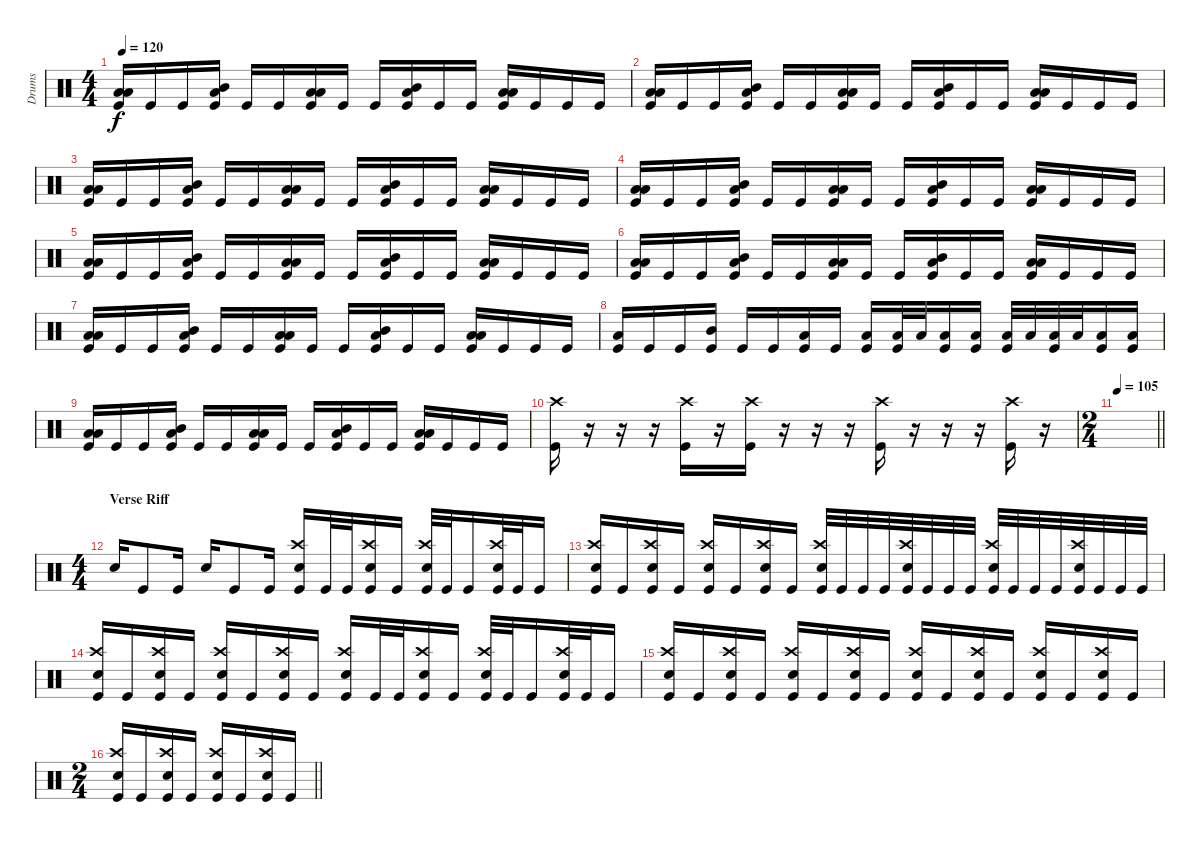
\track ("Drums" "Drums") {instrument percussion}
\staff {score}
\articulation defaults
\ts (4 4)
\tempo 120
\clef neutral
\ks c
("Low Tom (hit)" "Low Floor Tom (hit)" "Kick (hit)").16{dy f} "Kick (hit)".16 "Kick (hit)".16 ("Mid Tom (hit)" "Low Floor Tom (hit)" "Kick (hit)").16 "Kick (hit)".16 "Kick (hit)".16 ("Low Tom (hit)" "Low Floor Tom (hit)" "Kick (hit)").16 "Kick (hit)".16 "Kick (hit)".16 ("Mid Tom (hit)" "Low Floor Tom (hit)" "Kick (hit)").16 "Kick (hit)".16 "Kick (hit)".16 ("Low Tom (hit)" "Low Floor Tom (hit)" "Kick (hit)").16 "Kick (hit)".16 "Kick (hit)".16 "Kick (hit)".16 |
("Low Tom (hit)" "Low Floor Tom (hit)" "Kick (hit)").16 "Kick (hit)".16 "Kick (hit)".16 ("Mid Tom (hit)" "Low Floor Tom (hit)" "Kick (hit)").16 "Kick (hit)".16 "Kick (hit)".16 ("Low Tom (hit)" "Low Floor Tom (hit)" "Kick (hit)").16 "Kick (hit)".16 "Kick (hit)".16 ("Mid Tom (hit)" "Low Floor Tom (hit)" "Kick (hit)").16 "Kick (hit)".16 "Kick (hit)".16 ("Low Tom (hit)" "Low Floor Tom (hit)" "Kick (hit)").16 "Kick (hit)".16 "Kick (hit)".16 "Kick (hit)".16 |
("Low Tom (hit)" "Low Floor Tom (hit)" "Kick (hit)").16 "Kick (hit)".16 "Kick (hit)".16 ("Mid Tom (hit)" "Low Floor Tom (hit)" "Kick (hit)").16 "Kick (hit)".16 "Kick (hit)".16 ("Low Tom (hit)" "Low Floor Tom (hit)" "Kick (hit)").16 "Kick (hit)".16 "Kick (hit)".16 ("Mid Tom (hit)" "Low Floor Tom (hit)" "Kick (hit)").16 "Kick (hit)".16 "Kick (hit)".16 ("Low Tom (hit)" "Low Floor Tom (hit)" "Kick (hit)").16 "Kick (hit)".16 "Kick (hit)".16 "Kick (hit)".16 |
("Low Tom (hit)" "Low Floor Tom (hit)" "Kick (hit)").16 "Kick (hit)".16 "Kick (hit)".16 ("Mid Tom (hit)" "Low Floor Tom (hit)" "Kick (hit)").16 "Kick (hit)".16 "Kick (hit)".16 ("Low Tom (hit)" "Low Floor Tom (hit)" "Kick (hit)").16 "Kick (hit)".16 "Kick (hit)".16 ("Mid Tom (hit)" "Low Floor Tom (hit)" "Kick (hit)").16 "Kick (hit)".16 "Kick (hit)".16 ("Low Tom (hit)" "Low Floor Tom (hit)" "Kick (hit)").16 "Kick (hit)".16 "Kick (hit)".16 "Kick (hit)".16 |
("Low Tom (hit)" "Low Floor Tom (hit)" "Kick (hit)").16 "Kick (hit)".16 "Kick (hit)".16 ("Mid Tom (hit)" "Low Floor Tom (hit)" "Kick (hit)").16 "Kick (hit)".16 "Kick (hit)".16 ("Low Tom (hit)" "Low Floor Tom (hit)" "Kick (hit)").16 "Kick (hit)".16 "Kick (hit)".16 ("Mid Tom (hit)" "Low Floor Tom (hit)" "Kick (hit)").16 "Kick (hit)".16 "Kick (hit)".16 ("Low Tom (hit)" "Low Floor Tom (hit)" "Kick (hit)").16 "Kick (hit)".16 "Kick (hit)".16 "Kick (hit)".16 |
("Low Tom (hit)" "Low Floor Tom (hit)" "Kick (hit)").16 "Kick (hit)".16 "Kick (hit)".16 ("Mid Tom (hit)" "Low Floor Tom (hit)" "Kick (hit)").16 "Kick (hit)".16 "Kick (hit)".16 ("Low Tom (hit)" "Low Floor Tom (hit)" "Kick (hit)").16 "Kick (hit)".16 "Kick (hit)".16 ("Mid Tom (hit)" "Low Floor Tom (hit)" "Kick (hit)").16 "Kick (hit)".16 "Kick (hit)".16 ("Low Tom (hit)" "Low Floor Tom (hit)" "Kick (hit)").16 "Kick (hit)".16 "Kick (hit)".16 "Kick (hit)".16 |
("Low Tom (hit)" "Low Floor Tom (hit)" "Kick (hit)").16 "Kick (hit)".16 "Kick (hit)".16 ("Mid Tom (hit)" "Low Floor Tom (hit)" "Kick (hit)").16 "Kick (hit)".16 "Kick (hit)".16 ("Low Tom (hit)" "Low Floor Tom (hit)" "Kick (hit)").16 "Kick (hit)".16 "Kick (hit)".16 ("Mid Tom (hit)" "Low Floor Tom (hit)" "Kick (hit)").16 "Kick (hit)".16 "Kick (hit)".16 ("Low Tom (hit)" "Low Floor Tom (hit)" "Kick (hit)").16 "Kick (hit)".16 "Kick (hit)".16 "Kick (hit)".16 |
("Low Tom (hit)" "Kick (hit)").16 "Kick (hit)".16 "Kick (hit)".16 ("Mid Tom (hit)" "Kick (hit)").16 "Kick (hit)".16 "Kick (hit)".16 ("Low Tom (hit)" "Kick (hit)").16 "Kick (hit)".16 ("Low Tom (hit)" "Kick (hit)").16 ("Low Tom (hit)" "Kick (hit)").32 "Low Tom (hit)".32 ("Low Tom (hit)" "Kick (hit)").16 ("Low Tom (hit)" "Kick (hit)").16 ("Low Floor Tom (hit)" "Kick (hit)").32 "Low Floor Tom (hit)".32 ("Low Floor Tom (hit)" "Kick (hit)").32 "Low Floor Tom (hit)".32 ("Low Floor Tom (hit)" "Kick (hit)").16 ("Low Floor Tom (hit)" "Kick (hit)").16 |
("Low Tom (hit)" "Low Floor Tom (hit)" "Kick (hit)").16 "Kick (hit)".16 "Kick (hit)".16 ("Mid Tom (hit)" "Low Floor Tom (hit)" "Kick (hit)").16 "Kick (hit)".16 "Kick (hit)".16 ("Low Tom (hit)" "Low Floor Tom (hit)" "Kick (hit)").16 "Kick (hit)".16 "Kick (hit)".16 ("Mid Tom (hit)" "Low Floor Tom (hit)" "Kick (hit)").16 "Kick (hit)".16 "Kick (hit)".16 ("Low Tom (hit)" "Low Floor Tom (hit)" "Kick (hit)").16 "Kick (hit)".16 "Kick (hit)".16 "Kick (hit)".16 |
("Crash high (hit)" "Kick (hit)").16 r.16 r.16 r.16 ("Crash high (hit)" "Kick (hit)").16 r.16 ("Crash high (hit)" "Kick (hit)").16 r.16 r.16 r.16 ("Crash high (hit)" "Kick (hit)").16 r.16 r.16 r.16 ("Crash high (hit)" "Kick (hit)").16 r.16 |
\ts (2 4)
\tempo 105
\barLineRight lightlight
|
\ts (4 4)
\section ("" "Verse Riff")
"Snare (hit) 2".16 "Kick (hit)".8 "Kick (hit)".16 "Snare (hit) 2".16 "Kick (hit)".8 "Kick (hit)".16 ("Crash high (hit)" "Snare (hit) 2" "Kick (hit)").16 "Kick (hit)".32 "Kick (hit)".32 ("Crash high (hit)" "Snare (hit) 2" "Kick (hit)").16 "Kick (hit)".16 ("Crash high (hit)" "Snare (hit) 2" "Kick (hit)").32 "Kick (hit)".32 "Kick (hit)".16 ("Crash high (hit)" "Snare (hit) 2" "Kick (hit)").32 "Kick (hit)".32 "Kick (hit)".16 |
("Crash high (hit)" "Snare (hit) 2" "Kick (hit)").16 "Kick (hit)".16 ("Crash high (hit)" "Snare (hit) 2" "Kick (hit)").16 "Kick (hit)".16 ("Crash high (hit)" "Snare (hit) 2" "Kick (hit)").16 "Kick (hit)".16 ("Crash high (hit)" "Snare (hit) 2" "Kick (hit)").16 "Kick (hit)".16 ("Crash high (hit)" "Snare (hit) 2" "Kick (hit)").32 "Kick (hit)".32 "Kick (hit)".32 "Kick (hit)".32 ("Crash high (hit)" "Snare (hit) 2" "Kick (hit)").32 "Kick (hit)".32 "Kick (hit)".32 "Kick (hit)".32 ("Crash high (hit)" "Snare (hit) 2" "Kick (hit)").32 "Kick (hit)".32 "Kick (hit)".32 "Kick (hit)".32 ("Crash high (hit)" "Snare (hit) 2" "Kick (hit)").32 "Kick (hit)".32 "Kick (hit)".32 "Kick (hit)".32 |
("Crash high (hit)" "Snare (hit) 2" "Kick (hit)").16 "Kick (hit)".16 ("Crash high (hit)" "Snare (hit) 2" "Kick (hit)").16 "Kick (hit)".16 ("Crash high (hit)" "Snare (hit) 2" "Kick (hit)").16 "Kick (hit)".16 ("Crash high (hit)" "Snare (hit) 2" "Kick (hit)").16 "Kick (hit)".16 ("Crash high (hit)" "Snare (hit) 2" "Kick (hit)").16 "Kick (hit)".32 "Kick (hit)".32 ("Crash high (hit)" "Snare (hit) 2" "Kick (hit)").16 "Kick (hit)".16 ("Crash high (hit)" "Snare (hit) 2" "Kick (hit)").32 "Kick (hit)".32 "Kick (hit)".16 ("Crash high (hit)" "Snare (hit) 2" "Kick (hit)").32 "Kick (hit)".32 "Kick (hit)".16 |
("Crash high (hit)" "Snare (hit) 2" "Kick (hit)").16 "Kick (hit)".16 ("Crash high (hit)" "Snare (hit) 2" "Kick (hit)").16 "Kick (hit)".16 ("Crash high (hit)" "Snare (hit) 2" "Kick (hit)").16 "Kick (hit)".16 ("Crash high (hit)" "Snare (hit) 2" "Kick (hit)").16 "Kick (hit)".16 ("Crash high (hit)" "Snare (hit) 2" "Kick (hit)").16 "Kick (hit)".16 ("Crash high (hit)" "Snare (hit) 2" "Kick (hit)").16 "Kick (hit)".16 ("Crash high (hit)" "Snare (hit) 2" "Kick (hit)").16 "Kick (hit)".16 ("Crash high (hit)" "Snare (hit) 2" "Kick (hit)").16 "Kick (hit)".16 |
\ts (2 4)
\barLineRight lightlight
("Crash high (hit)" "Snare (hit) 2" "Kick (hit)").16 "Kick (hit)".16 ("Crash high (hit)" "Snare (hit) 2" "Kick (hit)").16 "Kick (hit)".16 ("Crash high (hit)" "Snare (hit) 2" "Kick (hit)").16 "Kick (hit)".16 ("Crash high (hit)" "Snare (hit) 2" "Kick (hit)").16 "Kick (hit)".16
